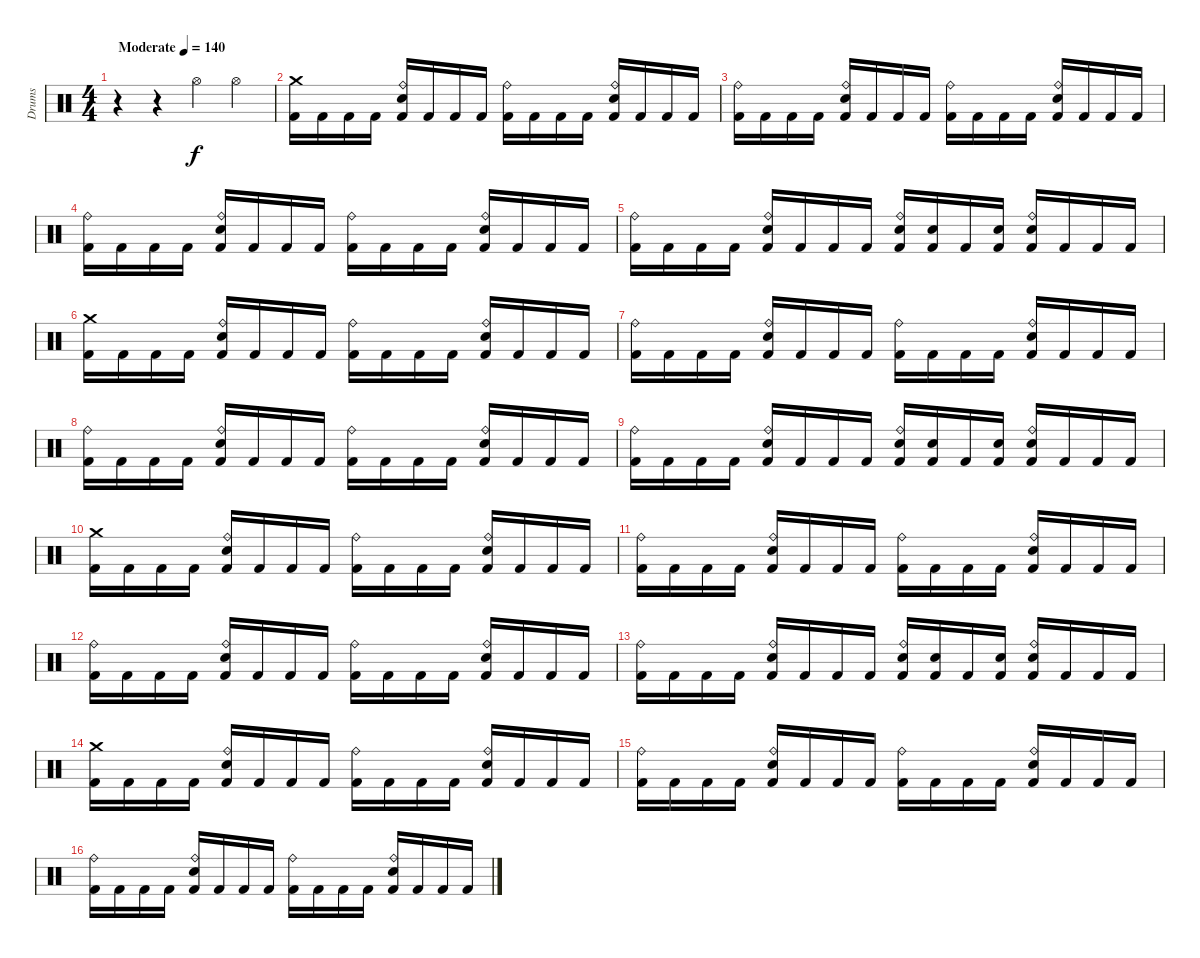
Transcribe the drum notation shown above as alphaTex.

\track ("Drums" "Drums") {instrument percussion}
\staff
\articulation defaults
\ts (4 4)
\tempo (140 "Moderate")
\clef neutral
\ks c
r.4{dy f} r.4 "Hi-Hat (open)".4 "Hi-Hat (open)".4 |
("Crash medium (hit)" "Kick (hit) 2").16 "Kick (hit) 2".16 "Kick (hit) 2".16 "Kick (hit) 2".16 ("Ride (bell)" "Electric Snare (hit)" "Kick (hit) 2").16 "Kick (hit) 2".16 "Kick (hit) 2".16 "Kick (hit) 2".16 ("Ride (bell)" "Kick (hit) 2").16 "Kick (hit) 2".16 "Kick (hit) 2".16 "Kick (hit) 2".16 ("Ride (bell)" "Electric Snare (hit)" "Kick (hit) 2").16 "Kick (hit) 2".16 "Kick (hit) 2".16 "Kick (hit) 2".16 |
("Ride (bell)" "Kick (hit) 2").16 "Kick (hit) 2".16 "Kick (hit) 2".16 "Kick (hit) 2".16 ("Ride (bell)" "Electric Snare (hit)" "Kick (hit) 2").16 "Kick (hit) 2".16 "Kick (hit) 2".16 "Kick (hit) 2".16 ("Ride (bell)" "Kick (hit) 2").16 "Kick (hit) 2".16 "Kick (hit) 2".16 "Kick (hit) 2".16 ("Ride (bell)" "Electric Snare (hit)" "Kick (hit) 2").16 "Kick (hit) 2".16 "Kick (hit) 2".16 "Kick (hit) 2".16 |
("Ride (bell)" "Kick (hit) 2").16 "Kick (hit) 2".16 "Kick (hit) 2".16 "Kick (hit) 2".16 ("Ride (bell)" "Electric Snare (hit)" "Kick (hit) 2").16 "Kick (hit) 2".16 "Kick (hit) 2".16 "Kick (hit) 2".16 ("Ride (bell)" "Kick (hit) 2").16 "Kick (hit) 2".16 "Kick (hit) 2".16 "Kick (hit) 2".16 ("Ride (bell)" "Electric Snare (hit)" "Kick (hit) 2").16 "Kick (hit) 2".16 "Kick (hit) 2".16 "Kick (hit) 2".16 |
("Ride (bell)" "Kick (hit) 2").16 "Kick (hit) 2".16 "Kick (hit) 2".16 "Kick (hit) 2".16 ("Ride (bell)" "Electric Snare (hit)" "Kick (hit) 2").16 "Kick (hit) 2".16 "Kick (hit) 2".16 "Kick (hit) 2".16 ("Ride (bell)" "Electric Snare (hit)" "Kick (hit) 2").16 ("Electric Snare (hit)" "Kick (hit) 2").16 "Kick (hit) 2".16 ("Electric Snare (hit)" "Kick (hit) 2").16 ("Ride (bell)" "Electric Snare (hit)" "Kick (hit) 2").16 "Kick (hit) 2".16 "Kick (hit) 2".16 "Kick (hit) 2".16 |
("Crash medium (hit)" "Kick (hit) 2").16 "Kick (hit) 2".16 "Kick (hit) 2".16 "Kick (hit) 2".16 ("Ride (bell)" "Electric Snare (hit)" "Kick (hit) 2").16 "Kick (hit) 2".16 "Kick (hit) 2".16 "Kick (hit) 2".16 ("Ride (bell)" "Kick (hit) 2").16 "Kick (hit) 2".16 "Kick (hit) 2".16 "Kick (hit) 2".16 ("Ride (bell)" "Electric Snare (hit)" "Kick (hit) 2").16 "Kick (hit) 2".16 "Kick (hit) 2".16 "Kick (hit) 2".16 |
("Ride (bell)" "Kick (hit) 2").16 "Kick (hit) 2".16 "Kick (hit) 2".16 "Kick (hit) 2".16 ("Ride (bell)" "Electric Snare (hit)" "Kick (hit) 2").16 "Kick (hit) 2".16 "Kick (hit) 2".16 "Kick (hit) 2".16 ("Ride (bell)" "Kick (hit) 2").16 "Kick (hit) 2".16 "Kick (hit) 2".16 "Kick (hit) 2".16 ("Ride (bell)" "Electric Snare (hit)" "Kick (hit) 2").16 "Kick (hit) 2".16 "Kick (hit) 2".16 "Kick (hit) 2".16 |
("Ride (bell)" "Kick (hit) 2").16 "Kick (hit) 2".16 "Kick (hit) 2".16 "Kick (hit) 2".16 ("Ride (bell)" "Electric Snare (hit)" "Kick (hit) 2").16 "Kick (hit) 2".16 "Kick (hit) 2".16 "Kick (hit) 2".16 ("Ride (bell)" "Kick (hit) 2").16 "Kick (hit) 2".16 "Kick (hit) 2".16 "Kick (hit) 2".16 ("Ride (bell)" "Electric Snare (hit)" "Kick (hit) 2").16 "Kick (hit) 2".16 "Kick (hit) 2".16 "Kick (hit) 2".16 |
("Ride (bell)" "Kick (hit) 2").16 "Kick (hit) 2".16 "Kick (hit) 2".16 "Kick (hit) 2".16 ("Ride (bell)" "Electric Snare (hit)" "Kick (hit) 2").16 "Kick (hit) 2".16 "Kick (hit) 2".16 "Kick (hit) 2".16 ("Ride (bell)" "Electric Snare (hit)" "Kick (hit) 2").16 ("Electric Snare (hit)" "Kick (hit) 2").16 "Kick (hit) 2".16 ("Electric Snare (hit)" "Kick (hit) 2").16 ("Ride (bell)" "Electric Snare (hit)" "Kick (hit) 2").16 "Kick (hit) 2".16 "Kick (hit) 2".16 "Kick (hit) 2".16 |
("Crash medium (hit)" "Kick (hit) 2").16 "Kick (hit) 2".16 "Kick (hit) 2".16 "Kick (hit) 2".16 ("Ride (bell)" "Electric Snare (hit)" "Kick (hit) 2").16 "Kick (hit) 2".16 "Kick (hit) 2".16 "Kick (hit) 2".16 ("Ride (bell)" "Kick (hit) 2").16 "Kick (hit) 2".16 "Kick (hit) 2".16 "Kick (hit) 2".16 ("Ride (bell)" "Electric Snare (hit)" "Kick (hit) 2").16 "Kick (hit) 2".16 "Kick (hit) 2".16 "Kick (hit) 2".16 |
("Ride (bell)" "Kick (hit) 2").16 "Kick (hit) 2".16 "Kick (hit) 2".16 "Kick (hit) 2".16 ("Ride (bell)" "Electric Snare (hit)" "Kick (hit) 2").16 "Kick (hit) 2".16 "Kick (hit) 2".16 "Kick (hit) 2".16 ("Ride (bell)" "Kick (hit) 2").16 "Kick (hit) 2".16 "Kick (hit) 2".16 "Kick (hit) 2".16 ("Ride (bell)" "Electric Snare (hit)" "Kick (hit) 2").16 "Kick (hit) 2".16 "Kick (hit) 2".16 "Kick (hit) 2".16 |
("Ride (bell)" "Kick (hit) 2").16 "Kick (hit) 2".16 "Kick (hit) 2".16 "Kick (hit) 2".16 ("Ride (bell)" "Electric Snare (hit)" "Kick (hit) 2").16 "Kick (hit) 2".16 "Kick (hit) 2".16 "Kick (hit) 2".16 ("Ride (bell)" "Kick (hit) 2").16 "Kick (hit) 2".16 "Kick (hit) 2".16 "Kick (hit) 2".16 ("Ride (bell)" "Electric Snare (hit)" "Kick (hit) 2").16 "Kick (hit) 2".16 "Kick (hit) 2".16 "Kick (hit) 2".16 |
("Ride (bell)" "Kick (hit) 2").16 "Kick (hit) 2".16 "Kick (hit) 2".16 "Kick (hit) 2".16 ("Ride (bell)" "Electric Snare (hit)" "Kick (hit) 2").16 "Kick (hit) 2".16 "Kick (hit) 2".16 "Kick (hit) 2".16 ("Ride (bell)" "Electric Snare (hit)" "Kick (hit) 2").16 ("Electric Snare (hit)" "Kick (hit) 2").16 "Kick (hit) 2".16 ("Electric Snare (hit)" "Kick (hit) 2").16 ("Ride (bell)" "Electric Snare (hit)" "Kick (hit) 2").16 "Kick (hit) 2".16 "Kick (hit) 2".16 "Kick (hit) 2".16 |
("Crash medium (hit)" "Kick (hit) 2").16 "Kick (hit) 2".16 "Kick (hit) 2".16 "Kick (hit) 2".16 ("Ride (bell)" "Electric Snare (hit)" "Kick (hit) 2").16 "Kick (hit) 2".16 "Kick (hit) 2".16 "Kick (hit) 2".16 ("Ride (bell)" "Kick (hit) 2").16 "Kick (hit) 2".16 "Kick (hit) 2".16 "Kick (hit) 2".16 ("Ride (bell)" "Electric Snare (hit)" "Kick (hit) 2").16 "Kick (hit) 2".16 "Kick (hit) 2".16 "Kick (hit) 2".16 |
("Ride (bell)" "Kick (hit) 2").16 "Kick (hit) 2".16 "Kick (hit) 2".16 "Kick (hit) 2".16 ("Ride (bell)" "Electric Snare (hit)" "Kick (hit) 2").16 "Kick (hit) 2".16 "Kick (hit) 2".16 "Kick (hit) 2".16 ("Ride (bell)" "Kick (hit) 2").16 "Kick (hit) 2".16 "Kick (hit) 2".16 "Kick (hit) 2".16 ("Ride (bell)" "Electric Snare (hit)" "Kick (hit) 2").16 "Kick (hit) 2".16 "Kick (hit) 2".16 "Kick (hit) 2".16 |
("Ride (bell)" "Kick (hit) 2").16 "Kick (hit) 2".16 "Kick (hit) 2".16 "Kick (hit) 2".16 ("Ride (bell)" "Electric Snare (hit)" "Kick (hit) 2").16 "Kick (hit) 2".16 "Kick (hit) 2".16 "Kick (hit) 2".16 ("Ride (bell)" "Kick (hit) 2").16 "Kick (hit) 2".16 "Kick (hit) 2".16 "Kick (hit) 2".16 ("Ride (bell)" "Electric Snare (hit)" "Kick (hit) 2").16 "Kick (hit) 2".16 "Kick (hit) 2".16 "Kick (hit) 2".16
